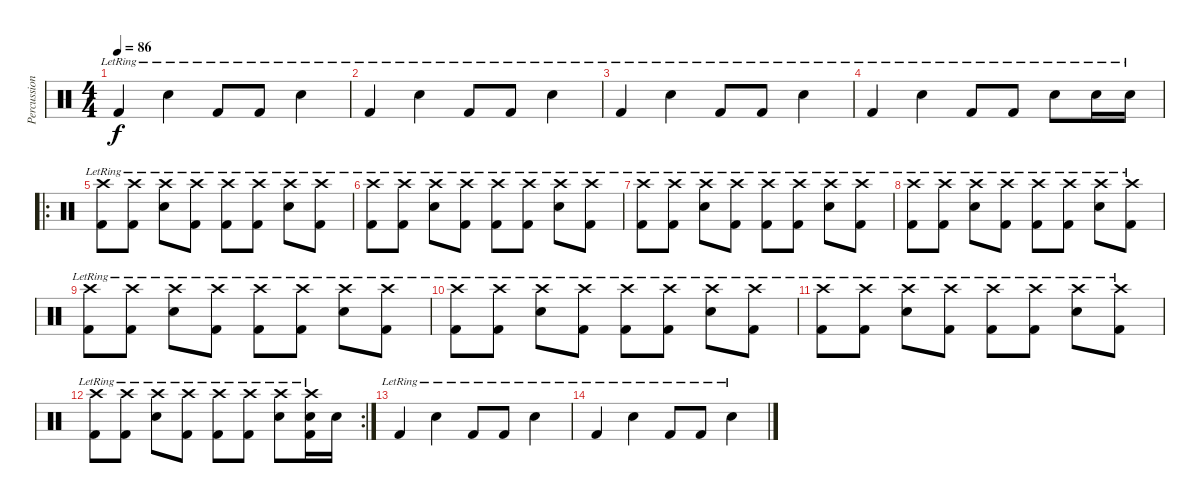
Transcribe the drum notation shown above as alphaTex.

\track ("Percussion" "Percussion") {instrument percussion}
\staff {score}
\articulation defaults
\ts (4 4)
\tempo 86
\clef neutral
\ks c "Kick (hit) 2"{lr}.4{dy f} "Electric Snare (hit)"{lr}.4 "Kick (hit) 2"{lr}.8 "Kick (hit) 2"{lr}.8 "Electric Snare (hit)"{lr}.4
|
"Kick (hit) 2"{lr}.4 "Electric Snare (hit)"{lr}.4 "Kick (hit) 2"{lr}.8 "Kick (hit) 2"{lr}.8 "Electric Snare (hit)"{lr}.4 |
"Kick (hit) 2"{lr}.4 "Electric Snare (hit)"{lr}.4 "Kick (hit) 2"{lr}.8 "Kick (hit) 2"{lr}.8 "Electric Snare (hit)"{lr}.4 |
"Kick (hit) 2"{lr}.4 "Electric Snare (hit)"{lr}.4 "Kick (hit) 2"{lr}.8 "Kick (hit) 2"{lr}.8 "Electric Snare (hit)"{lr}.8 "Electric Snare (hit)"{lr}.16 "Electric Snare (hit)"{lr}.16 |
\ro
("Crash high (hit)"{lr} "Kick (hit) 2"{lr}).8 ("Crash high (hit)"{lr} "Kick (hit) 2"{lr}).8 ("Crash high (hit)"{lr} "Electric Snare (hit)"{lr}).8 ("Crash high (hit)"{lr} "Kick (hit) 2"{lr}).8 ("Crash high (hit)"{lr} "Kick (hit) 2"{lr}).8 ("Crash high (hit)"{lr} "Kick (hit) 2"{lr}).8 ("Crash high (hit)"{lr} "Electric Snare (hit)"{lr}).8 ("Crash high (hit)"{lr} "Kick (hit) 2"{lr}).8 |
("Crash high (hit)"{lr} "Kick (hit) 2"{lr}).8 ("Crash high (hit)"{lr} "Kick (hit) 2"{lr}).8 ("Crash high (hit)"{lr} "Electric Snare (hit)"{lr}).8 ("Crash high (hit)"{lr} "Kick (hit) 2"{lr}).8 ("Crash high (hit)"{lr} "Kick (hit) 2"{lr}).8 ("Crash high (hit)"{lr} "Kick (hit) 2"{lr}).8 ("Crash high (hit)"{lr} "Electric Snare (hit)"{lr}).8 ("Crash high (hit)"{lr} "Kick (hit) 2"{lr}).8 |
("Crash high (hit)"{lr} "Kick (hit) 2"{lr}).8 ("Crash high (hit)"{lr} "Kick (hit) 2"{lr}).8 ("Crash high (hit)"{lr} "Electric Snare (hit)"{lr}).8 ("Crash high (hit)"{lr} "Kick (hit) 2"{lr}).8 ("Crash high (hit)"{lr} "Kick (hit) 2"{lr}).8 ("Crash high (hit)"{lr} "Kick (hit) 2"{lr}).8 ("Crash high (hit)"{lr} "Electric Snare (hit)"{lr}).8 ("Crash high (hit)"{lr} "Kick (hit) 2"{lr}).8 |
("Crash high (hit)"{lr} "Kick (hit) 2"{lr}).8 ("Crash high (hit)"{lr} "Kick (hit) 2"{lr}).8 ("Crash high (hit)"{lr} "Electric Snare (hit)"{lr}).8 ("Crash high (hit)"{lr} "Kick (hit) 2"{lr}).8 ("Crash high (hit)"{lr} "Kick (hit) 2"{lr}).8 ("Crash high (hit)"{lr} "Kick (hit) 2"{lr}).8 ("Crash high (hit)"{lr} "Electric Snare (hit)"{lr}).8 ("Crash high (hit)"{lr} "Kick (hit) 2"{lr}).8 |
("Crash high (hit)"{lr} "Kick (hit) 2"{lr}).8 ("Crash high (hit)"{lr} "Kick (hit) 2"{lr}).8 ("Crash high (hit)"{lr} "Electric Snare (hit)"{lr}).8 ("Crash high (hit)"{lr} "Kick (hit) 2"{lr}).8 ("Crash high (hit)"{lr} "Kick (hit) 2"{lr}).8 ("Crash high (hit)"{lr} "Kick (hit) 2"{lr}).8 ("Crash high (hit)"{lr} "Electric Snare (hit)"{lr}).8 ("Crash high (hit)"{lr} "Kick (hit) 2"{lr}).8 |
("Crash high (hit)"{lr} "Kick (hit) 2"{lr}).8 ("Crash high (hit)"{lr} "Kick (hit) 2"{lr}).8 ("Crash high (hit)"{lr} "Electric Snare (hit)"{lr}).8 ("Crash high (hit)"{lr} "Kick (hit) 2"{lr}).8 ("Crash high (hit)"{lr} "Kick (hit) 2"{lr}).8 ("Crash high (hit)"{lr} "Kick (hit) 2"{lr}).8 ("Crash high (hit)"{lr} "Electric Snare (hit)"{lr}).8 ("Crash high (hit)"{lr} "Kick (hit) 2"{lr}).8 |
("Crash high (hit)"{lr} "Kick (hit) 2"{lr}).8 ("Crash high (hit)"{lr} "Kick (hit) 2"{lr}).8 ("Crash high (hit)"{lr} "Electric Snare (hit)"{lr}).8 ("Crash high (hit)"{lr} "Kick (hit) 2"{lr}).8 ("Crash high (hit)"{lr} "Kick (hit) 2"{lr}).8 ("Crash high (hit)"{lr} "Kick (hit) 2"{lr}).8 ("Crash high (hit)"{lr} "Electric Snare (hit)"{lr}).8 ("Crash high (hit)"{lr} "Kick (hit) 2"{lr}).8 |
\rc 2
("Crash high (hit)"{lr} "Kick (hit) 2"{lr}).8 ("Crash high (hit)"{lr} "Kick (hit) 2"{lr}).8 ("Crash high (hit)"{lr} "Electric Snare (hit)"{lr}).8 ("Crash high (hit)"{lr} "Kick (hit) 2"{lr}).8 ("Crash high (hit)"{lr} "Kick (hit) 2"{lr}).8 ("Crash high (hit)" "Kick (hit) 2"{lr}).8 ("Crash high (hit)"{lr} "Electric Snare (hit)"{lr}).8 ("Crash high (hit)"{lr} "Electric Snare (hit)" "Kick (hit) 2"{lr}).16 "Electric Snare (hit)".16 |
"Kick (hit) 2"{lr}.4 "Electric Snare (hit)"{lr}.4 "Kick (hit) 2"{lr}.8 "Kick (hit) 2"{lr}.8 "Electric Snare (hit)"{lr}.4 |
"Kick (hit) 2"{lr}.4 "Electric Snare (hit)"{lr}.4 "Kick (hit) 2"{lr}.8 "Kick (hit) 2"{lr}.8 "Electric Snare (hit)"{lr}.4
